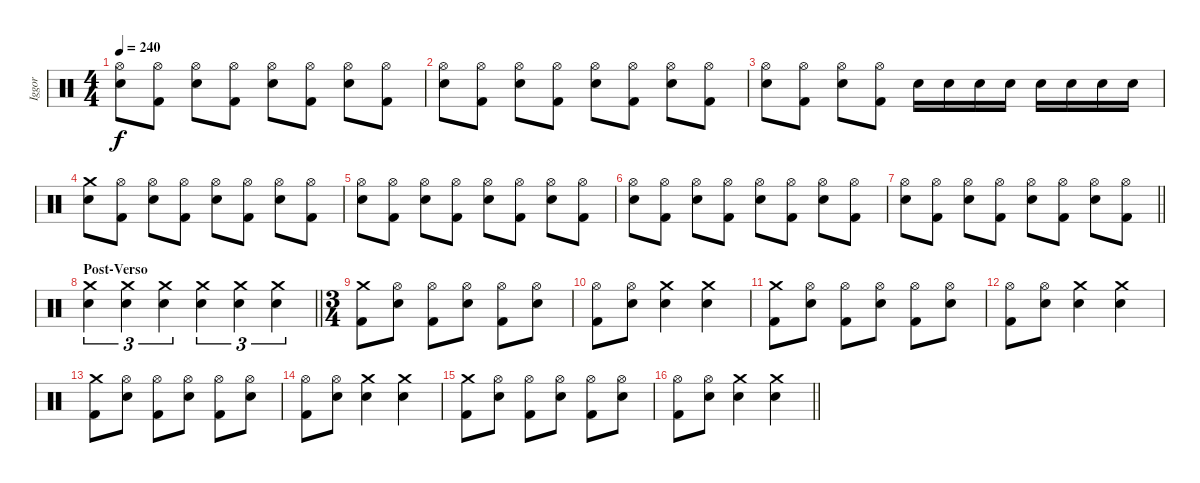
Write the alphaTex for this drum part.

\track ("Iggor" "Iggor") {instrument percussion}
\staff {score}
\articulation defaults
\ts (4 4)
\tempo 240
\clef neutral
\ks c
("Hi-Hat (open)" "Snare (hit) 2").8{dy f} ("Hi-Hat (open)" "Kick (hit) 2").8 ("Hi-Hat (open)" "Snare (hit) 2").8 ("Hi-Hat (open)" "Kick (hit) 2").8 ("Hi-Hat (open)" "Snare (hit) 2").8 ("Hi-Hat (open)" "Kick (hit) 2").8 ("Hi-Hat (open)" "Snare (hit) 2").8 ("Hi-Hat (open)" "Kick (hit) 2").8 |
("Hi-Hat (open)" "Snare (hit) 2").8 ("Hi-Hat (open)" "Kick (hit) 2").8 ("Hi-Hat (open)" "Snare (hit) 2").8 ("Hi-Hat (open)" "Kick (hit) 2").8 ("Hi-Hat (open)" "Snare (hit) 2").8 ("Hi-Hat (open)" "Kick (hit) 2").8 ("Hi-Hat (open)" "Snare (hit) 2").8 ("Hi-Hat (open)" "Kick (hit) 2").8 |
("Hi-Hat (open)" "Snare (hit) 2").8 ("Hi-Hat (open)" "Kick (hit) 2").8 ("Hi-Hat (open)" "Snare (hit) 2").8 ("Hi-Hat (open)" "Kick (hit) 2").8 "Snare (hit) 2".16 "Snare (hit) 2".16 "Snare (hit) 2".16 "Snare (hit) 2".16 "Snare (hit) 2".16 "Snare (hit) 2".16 "Snare (hit) 2".16 "Snare (hit) 2".16 |
("Crash medium (hit)" "Snare (hit) 2").8 ("Hi-Hat (open)" "Kick (hit) 2").8 ("Hi-Hat (open)" "Snare (hit) 2").8 ("Hi-Hat (open)" "Kick (hit) 2").8 ("Hi-Hat (open)" "Snare (hit) 2").8 ("Hi-Hat (open)" "Kick (hit) 2").8 ("Hi-Hat (open)" "Snare (hit) 2").8 ("Hi-Hat (open)" "Kick (hit) 2").8 |
("Hi-Hat (open)" "Snare (hit) 2").8 ("Hi-Hat (open)" "Kick (hit) 2").8 ("Hi-Hat (open)" "Snare (hit) 2").8 ("Hi-Hat (open)" "Kick (hit) 2").8 ("Hi-Hat (open)" "Snare (hit) 2").8 ("Hi-Hat (open)" "Kick (hit) 2").8 ("Hi-Hat (open)" "Snare (hit) 2").8 ("Hi-Hat (open)" "Kick (hit) 2").8 |
("Hi-Hat (open)" "Snare (hit) 2").8 ("Hi-Hat (open)" "Kick (hit) 2").8 ("Hi-Hat (open)" "Snare (hit) 2").8 ("Hi-Hat (open)" "Kick (hit) 2").8 ("Hi-Hat (open)" "Snare (hit) 2").8 ("Hi-Hat (open)" "Kick (hit) 2").8 ("Hi-Hat (open)" "Snare (hit) 2").8 ("Hi-Hat (open)" "Kick (hit) 2").8 |
\barLineRight lightlight
("Hi-Hat (open)" "Snare (hit) 2").8 ("Hi-Hat (open)" "Kick (hit) 2").8 ("Hi-Hat (open)" "Snare (hit) 2").8 ("Hi-Hat (open)" "Kick (hit) 2").8 ("Hi-Hat (open)" "Snare (hit) 2").8 ("Hi-Hat (open)" "Kick (hit) 2").8 ("Hi-Hat (open)" "Snare (hit) 2").8 ("Hi-Hat (open)" "Kick (hit) 2").8 |
\section ("" "Post-Verso")
\barLineRight lightlight
("Crash medium (hit)" "Snare (hit) 2").4{tu (3 2)} ("Crash medium (hit)" "Snare (hit) 2").4{tu (3 2)} ("Crash medium (hit)" "Snare (hit) 2").4{tu (3 2)} ("Crash medium (hit)" "Snare (hit) 2").4{tu (3 2)} ("Crash medium (hit)" "Snare (hit) 2").4{tu (3 2)} ("Crash medium (hit)" "Snare (hit) 2").4{tu (3 2)} |
\ts (3 4)
("Crash medium (hit)" "Kick (hit) 2").8 ("Hi-Hat (open)" "Snare (hit) 2").8 ("Hi-Hat (open)" "Kick (hit) 2").8 ("Hi-Hat (open)" "Snare (hit) 2").8 ("Hi-Hat (open)" "Kick (hit) 2").8 ("Hi-Hat (open)" "Snare (hit) 2").8 |
("Hi-Hat (open)" "Kick (hit) 2").8 ("Hi-Hat (open)" "Snare (hit) 2").8 ("Crash medium (hit)" "Snare (hit) 2").4 ("Crash medium (hit)" "Snare (hit) 2").4 |
("Crash medium (hit)" "Kick (hit) 2").8 ("Hi-Hat (open)" "Snare (hit) 2").8 ("Hi-Hat (open)" "Kick (hit) 2").8 ("Hi-Hat (open)" "Snare (hit) 2").8 ("Hi-Hat (open)" "Kick (hit) 2").8 ("Hi-Hat (open)" "Snare (hit) 2").8 |
("Hi-Hat (open)" "Kick (hit) 2").8 ("Hi-Hat (open)" "Snare (hit) 2").8 ("Crash medium (hit)" "Snare (hit) 2").4 ("Crash medium (hit)" "Snare (hit) 2").4 |
("Crash medium (hit)" "Kick (hit) 2").8 ("Hi-Hat (open)" "Snare (hit) 2").8 ("Hi-Hat (open)" "Kick (hit) 2").8 ("Hi-Hat (open)" "Snare (hit) 2").8 ("Hi-Hat (open)" "Kick (hit) 2").8 ("Hi-Hat (open)" "Snare (hit) 2").8 |
("Hi-Hat (open)" "Kick (hit) 2").8 ("Hi-Hat (open)" "Snare (hit) 2").8 ("Crash medium (hit)" "Snare (hit) 2").4 ("Crash medium (hit)" "Snare (hit) 2").4 |
("Crash medium (hit)" "Kick (hit) 2").8 ("Hi-Hat (open)" "Snare (hit) 2").8 ("Hi-Hat (open)" "Kick (hit) 2").8 ("Hi-Hat (open)" "Snare (hit) 2").8 ("Hi-Hat (open)" "Kick (hit) 2").8 ("Hi-Hat (open)" "Snare (hit) 2").8 |
\barLineRight lightlight
("Hi-Hat (open)" "Kick (hit) 2").8 ("Hi-Hat (open)" "Snare (hit) 2").8 ("Crash medium (hit)" "Snare (hit) 2").4 ("Crash medium (hit)" "Snare (hit) 2").4
